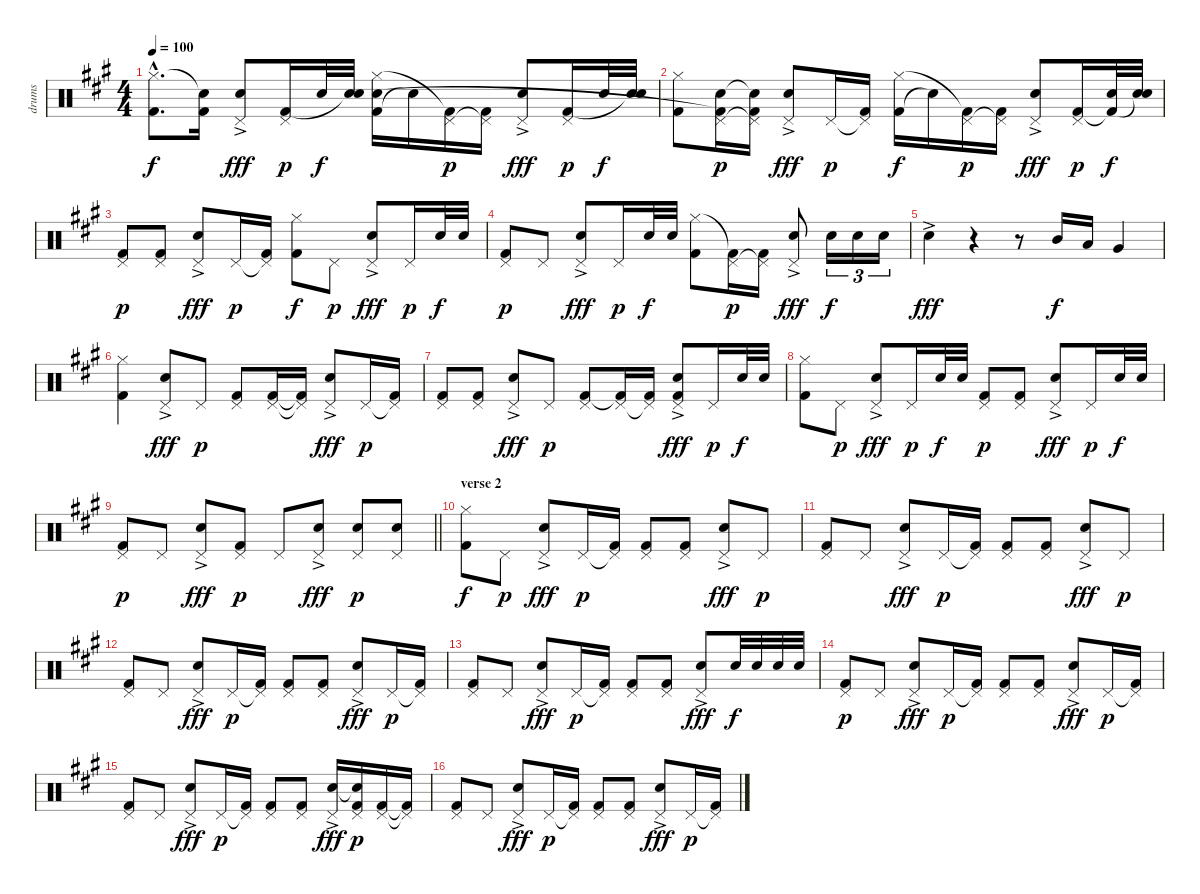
\track ("drums" "drums") {instrument percussion}
\staff {score}
\articulation defaults
\ts (4 4)
\tempo 100
\clef neutral
\ks a
("Hi-Hat (closed)"{hac} "Kick (hit) 2"{hac}).8{d dy f} ("Snare (hit)"{t} "Kick (hit) 2").16 ("Pedal Hi-Hat (hit)" "Snare (hit) 2"{ac}).8{dy fff} ("Pedal Hi-Hat (hit)" "Kick (hit) 2").16{dy p} "Snare (hit) 2".32{dy f} ("Snare (hit) 2" "Snare (hit)"{t}).32 ("Kick (hit) 2" "Hi-Hat (closed)" "Snare (hit) 2").16 "Snare (hit)"{t}.16 ("Pedal Hi-Hat (hit)" "Kick (hit) 2"{t}).16{dy p} ("Pedal Hi-Hat (hit)"{t} "Kick (hit) 2").16 ("Pedal Hi-Hat (hit)" "Snare (hit) 2"{ac}).8{dy fff} ("Pedal Hi-Hat (hit)" "Kick (hit) 2").16{dy p} "Snare (hit) 2".32{dy f} ("Snare (hit) 2" "Snare (hit)"{t}).32 |
("Hi-Hat (closed)" "Kick (hit) 2").8 ("Pedal Hi-Hat (hit)" "Snare (hit) 2" "Kick (hit) 2"{t}).16{dy p} ("Pedal Hi-Hat (hit)"{t} "Snare (hit) 2"{t} "Kick (hit) 2").16 ("Pedal Hi-Hat (hit)" "Snare (hit) 2"{ac}).8{dy fff} "Pedal Hi-Hat (hit)".16{dy p} ("Pedal Hi-Hat (hit)"{t} "Kick (hit) 2").16 ("Kick (hit) 2" "Hi-Hat (closed)").16{dy f} "Snare (hit)"{t}.16 ("Pedal Hi-Hat (hit)" "Kick (hit) 2"{t}).16{dy p} ("Pedal Hi-Hat (hit)"{t} "Kick (hit) 2").16 ("Pedal Hi-Hat (hit)" "Snare (hit) 2"{ac}).8{dy fff} ("Pedal Hi-Hat (hit)" "Kick (hit) 2").16{dy p} ("Snare (hit) 2" "Kick (hit) 2"{t}).32{dy f} ("Snare (hit) 2" "Snare (hit)"{t}).32 |
("Pedal Hi-Hat (hit)" "Kick (hit) 2").8{dy p} ("Pedal Hi-Hat (hit)" "Kick (hit) 2").8 ("Pedal Hi-Hat (hit)" "Snare (hit) 2"{ac}).8{dy fff} "Pedal Hi-Hat (hit)".16{dy p} ("Pedal Hi-Hat (hit)"{t} "Kick (hit) 2").16 ("Kick (hit) 2" "Hi-Hat (closed)").8{dy f} "Pedal Hi-Hat (hit)".8{dy p} ("Pedal Hi-Hat (hit)" "Snare (hit) 2"{ac}).8{dy fff} "Pedal Hi-Hat (hit)".16{dy p} "Snare (hit) 2".32{dy f} "Snare (hit) 2".32 |
("Pedal Hi-Hat (hit)" "Kick (hit) 2").8{dy p} "Pedal Hi-Hat (hit)".8 ("Pedal Hi-Hat (hit)" "Snare (hit) 2"{ac}).8{dy fff} "Pedal Hi-Hat (hit)".16{dy p} "Snare (hit) 2".32{dy f} "Snare (hit) 2".32 ("Kick (hit) 2" "Hi-Hat (closed)").8 ("Pedal Hi-Hat (hit)" "Kick (hit) 2"{t}).16{dy p} ("Pedal Hi-Hat (hit)"{t} "Kick (hit) 2").16 ("Pedal Hi-Hat (hit)" "Snare (hit) 2"{ac}).8{dy fff} "Snare (hit) 2".16{tu (3 2) dy f} "Snare (hit) 2".16{tu (3 2)} "Snare (hit) 2".16{tu (3 2)} |
"Snare (hit) 2"{ac}.4{dy fff} r.4 r.8 "Mid Tom (hit)".16{dy f} "Low Tom (hit)".16 "Very Low Tom (hit)".4 |
("Hi-Hat (closed)" "Kick (hit) 2").4 ("Pedal Hi-Hat (hit)" "Snare (hit) 2"{ac}).8{dy fff} "Pedal Hi-Hat (hit)".8{dy p} ("Pedal Hi-Hat (hit)" "Kick (hit) 2").8 ("Pedal Hi-Hat (hit)" "Kick (hit) 2").16 ("Pedal Hi-Hat (hit)"{t} "Kick (hit) 2"{t}).16 ("Pedal Hi-Hat (hit)" "Snare (hit) 2"{ac}).8{dy fff} "Pedal Hi-Hat (hit)".16{dy p} ("Pedal Hi-Hat (hit)"{t} "Kick (hit) 2").16 |
("Pedal Hi-Hat (hit)" "Kick (hit) 2").8 ("Pedal Hi-Hat (hit)" "Kick (hit) 2").8 ("Pedal Hi-Hat (hit)" "Snare (hit) 2"{ac}).8{dy fff} "Pedal Hi-Hat (hit)".8{dy p} ("Pedal Hi-Hat (hit)" "Kick (hit) 2").8 ("Pedal Hi-Hat (hit)" "Kick (hit) 2"{t}).16 ("Pedal Hi-Hat (hit)"{t} "Kick (hit) 2").16 ("Pedal Hi-Hat (hit)" "Kick (hit) 2" "Snare (hit) 2"{ac}).8{dy fff} "Pedal Hi-Hat (hit)".16{dy p} "Snare (hit) 2".32{dy f} "Snare (hit) 2".32 |
("Hi-Hat (closed)" "Kick (hit) 2").8 "Pedal Hi-Hat (hit)".8{dy p} ("Pedal Hi-Hat (hit)" "Snare (hit) 2"{ac}).8{dy fff} "Pedal Hi-Hat (hit)".16{dy p} "Snare (hit) 2".32{dy f} "Snare (hit) 2".32 ("Pedal Hi-Hat (hit)" "Kick (hit) 2").8{dy p} ("Pedal Hi-Hat (hit)" "Kick (hit) 2").8 ("Pedal Hi-Hat (hit)" "Snare (hit) 2"{ac}).8{dy fff} "Pedal Hi-Hat (hit)".16{dy p} "Snare (hit) 2".32{dy f} "Snare (hit) 2".32 |
\barLineRight lightlight
("Pedal Hi-Hat (hit)" "Kick (hit) 2").8{dy p} "Pedal Hi-Hat (hit)".8 ("Pedal Hi-Hat (hit)" "Snare (hit) 2"{ac}).8{dy fff} ("Pedal Hi-Hat (hit)" "Kick (hit) 2").8{dy p} "Pedal Hi-Hat (hit)".8 ("Pedal Hi-Hat (hit)" "Snare (hit) 2"{ac}).8{dy fff} ("Pedal Hi-Hat (hit)" "Snare (hit) 2").8{dy p} ("Pedal Hi-Hat (hit)" "Snare (hit) 2").8 |
\section ("" "verse 2")
("Hi-Hat (closed)" "Kick (hit) 2").8{dy f} "Pedal Hi-Hat (hit)".8{dy p} ("Pedal Hi-Hat (hit)" "Snare (hit) 2"{ac}).8{dy fff} "Pedal Hi-Hat (hit)".16{dy p} ("Pedal Hi-Hat (hit)"{t} "Kick (hit) 2").16 ("Pedal Hi-Hat (hit)" "Kick (hit) 2").8 ("Pedal Hi-Hat (hit)" "Kick (hit) 2").8 ("Pedal Hi-Hat (hit)" "Snare (hit) 2"{ac}).8{dy fff} "Pedal Hi-Hat (hit)".8{dy p} |
("Pedal Hi-Hat (hit)" "Kick (hit) 2").8 "Pedal Hi-Hat (hit)".8 ("Pedal Hi-Hat (hit)" "Snare (hit) 2"{ac}).8{dy fff} "Pedal Hi-Hat (hit)".16{dy p} ("Pedal Hi-Hat (hit)"{t} "Kick (hit) 2").16 ("Pedal Hi-Hat (hit)" "Kick (hit) 2").8 ("Pedal Hi-Hat (hit)" "Kick (hit) 2").8 ("Pedal Hi-Hat (hit)" "Snare (hit) 2"{ac}).8{dy fff} "Pedal Hi-Hat (hit)".8{dy p} |
("Pedal Hi-Hat (hit)" "Kick (hit) 2").8 "Pedal Hi-Hat (hit)".8 ("Pedal Hi-Hat (hit)" "Snare (hit) 2"{ac}).8{dy fff} "Pedal Hi-Hat (hit)".16{dy p} ("Pedal Hi-Hat (hit)"{t} "Kick (hit) 2").16 ("Pedal Hi-Hat (hit)" "Kick (hit) 2").8 ("Pedal Hi-Hat (hit)" "Kick (hit) 2").8 ("Pedal Hi-Hat (hit)" "Snare (hit) 2"{ac}).8{dy fff} "Pedal Hi-Hat (hit)".16{dy p} ("Pedal Hi-Hat (hit)"{t} "Kick (hit) 2").16 |
("Pedal Hi-Hat (hit)" "Kick (hit) 2").8 "Pedal Hi-Hat (hit)".8 ("Pedal Hi-Hat (hit)" "Snare (hit) 2"{ac}).8{dy fff} "Pedal Hi-Hat (hit)".16{dy p} ("Pedal Hi-Hat (hit)"{t} "Kick (hit) 2").16 ("Pedal Hi-Hat (hit)" "Kick (hit) 2").8 ("Pedal Hi-Hat (hit)" "Kick (hit) 2").8 ("Pedal Hi-Hat (hit)" "Snare (hit) 2"{ac}).8{dy fff} "Snare (hit) 2".32{dy f} "Snare (hit) 2".32 "Snare (hit) 2".32 "Snare (hit) 2".32 |
("Pedal Hi-Hat (hit)" "Kick (hit) 2").8{dy p} "Pedal Hi-Hat (hit)".8 ("Pedal Hi-Hat (hit)" "Snare (hit) 2"{ac}).8{dy fff} "Pedal Hi-Hat (hit)".16{dy p} ("Pedal Hi-Hat (hit)"{t} "Kick (hit) 2").16 ("Pedal Hi-Hat (hit)" "Kick (hit) 2").8 ("Pedal Hi-Hat (hit)" "Kick (hit) 2").8 ("Pedal Hi-Hat (hit)" "Snare (hit) 2"{ac}).8{dy fff} "Pedal Hi-Hat (hit)".16{dy p} ("Pedal Hi-Hat (hit)"{t} "Kick (hit) 2").16 |
("Pedal Hi-Hat (hit)" "Kick (hit) 2").8 "Pedal Hi-Hat (hit)".8 ("Pedal Hi-Hat (hit)" "Snare (hit) 2"{ac}).8{dy fff} "Pedal Hi-Hat (hit)".16{dy p} ("Pedal Hi-Hat (hit)"{t} "Kick (hit) 2").16 ("Pedal Hi-Hat (hit)" "Kick (hit) 2").8 ("Pedal Hi-Hat (hit)" "Kick (hit) 2").8 ("Pedal Hi-Hat (hit)" "Snare (hit) 2"{ac}).16{dy fff} ("Pedal Hi-Hat (hit)" "Snare (hit)"{t} "Kick (hit) 2").16{dy p} ("Pedal Hi-Hat (hit)" "Kick (hit) 2").16 ("Pedal Hi-Hat (hit)"{t} "Kick (hit) 2"{t}).16 |
("Pedal Hi-Hat (hit)" "Kick (hit) 2").8 "Pedal Hi-Hat (hit)".8 ("Pedal Hi-Hat (hit)" "Snare (hit) 2"{ac}).8{dy fff} "Pedal Hi-Hat (hit)".16{dy p} ("Pedal Hi-Hat (hit)"{t} "Kick (hit) 2").16 ("Pedal Hi-Hat (hit)" "Kick (hit) 2").8 ("Pedal Hi-Hat (hit)" "Kick (hit) 2").8 ("Pedal Hi-Hat (hit)" "Snare (hit) 2"{ac}).8{dy fff} "Pedal Hi-Hat (hit)".16{dy p} ("Pedal Hi-Hat (hit)"{t} "Kick (hit) 2").16
